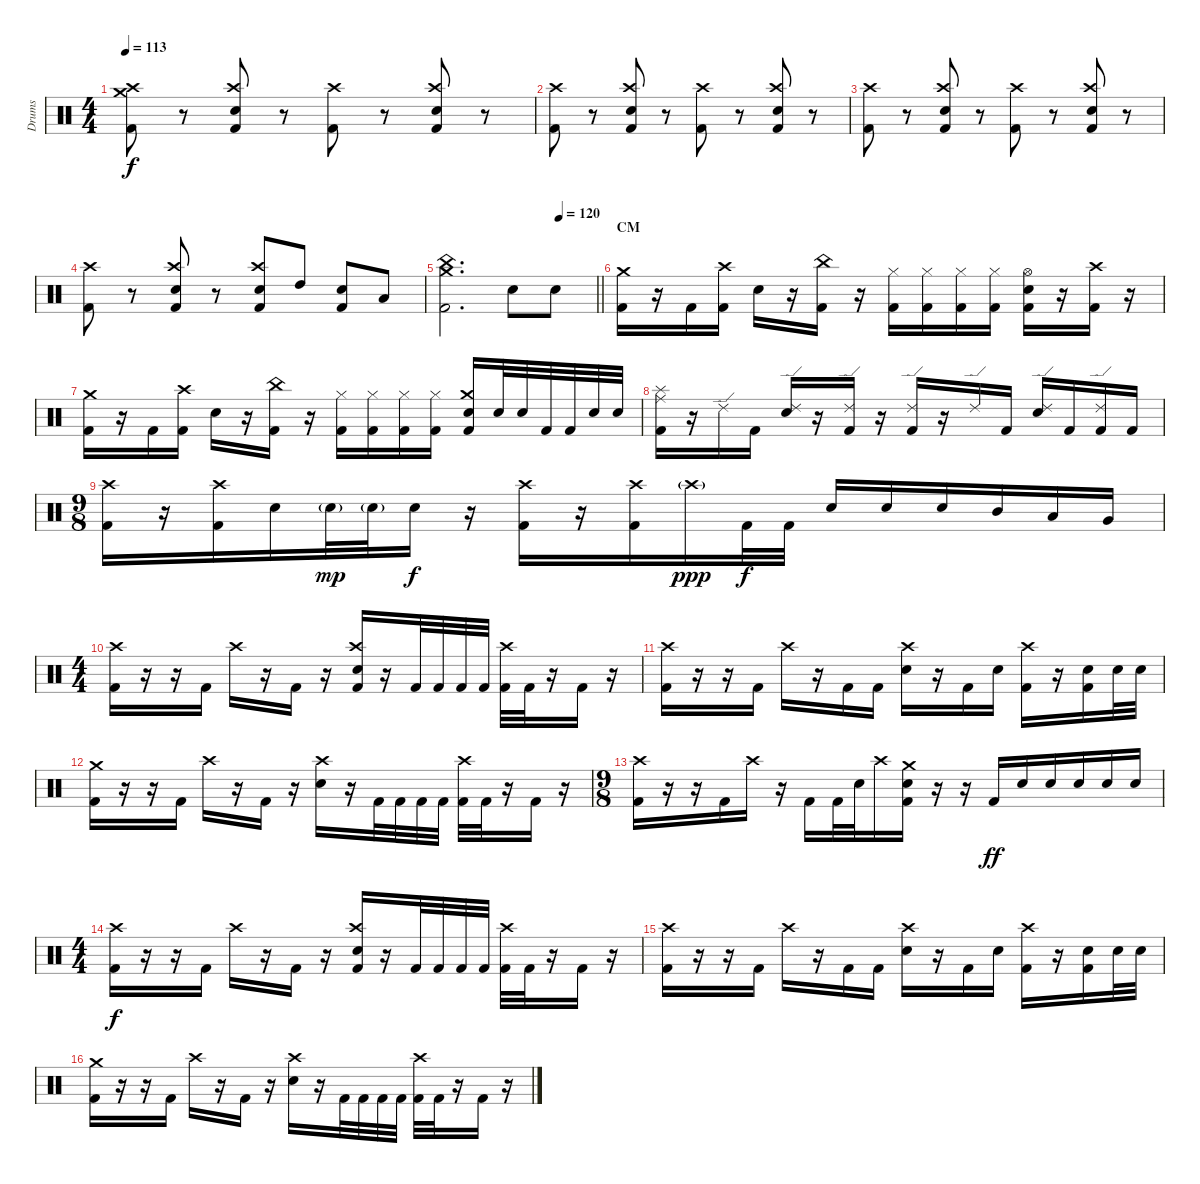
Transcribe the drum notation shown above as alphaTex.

\track ("Drums" "Drums") {instrument percussion}
\staff {score}
\articulation defaults
\ts (4 4)
\tempo 113
\clef neutral
\ks c
("Kick (hit) 2" "Crash high (hit)" "Crash medium (hit)").8{dy f} r.8 ("Kick (hit) 2" "Electric Snare (hit)" "Crash high (hit)").8 r.8 ("Kick (hit) 2" "Crash high (hit)").8 r.8 ("Kick (hit) 2" "Electric Snare (hit)" "Crash high (hit)").8 r.8 |
("Kick (hit) 2" "Crash high (hit)").8 r.8 ("Kick (hit) 2" "Electric Snare (hit)" "Crash high (hit)").8 r.8 ("Kick (hit) 2" "Crash high (hit)").8 r.8 ("Kick (hit) 2" "Electric Snare (hit)" "Crash high (hit)").8 r.8 |
("Kick (hit) 2" "Crash high (hit)").8 r.8 ("Kick (hit) 2" "Electric Snare (hit)" "Crash high (hit)").8 r.8 ("Kick (hit) 2" "Crash high (hit)").8 r.8 ("Kick (hit) 2" "Electric Snare (hit)" "Crash high (hit)").8 r.8 |
("Kick (hit) 2" "Crash high (hit)").8 r.8 ("Kick (hit) 2" "Electric Snare (hit)" "Crash high (hit)").8 r.8 ("Kick (hit) 2" "Electric Snare (hit)" "Crash high (hit)").8 "High Tom (hit)".8 ("Kick (hit) 2" "Electric Snare (hit)").8 "Low Floor Tom (hit)".8 |
\tempo (120 0.75)
\barLineRight lightlight
("Kick (hit) 2" "China (hit)" "Crash medium (hit)").2{d} "Electric Snare (hit)".8 "Electric Snare (hit)".8 |
\section ("" "CM")
("Crash medium (hit)" "Kick (hit) 2").16 r.16 "Kick (hit) 2".16 ("Crash high (hit)" "Kick (hit) 2").16 "Electric Snare (hit)".16 r.16 ("China (hit)" "Kick (hit) 2").16 r.16 ("Hi-Hat (closed)" "Kick (hit) 2").16 ("Hi-Hat (closed)" "Kick (hit) 2").16 ("Hi-Hat (closed)" "Kick (hit) 2").16 ("Hi-Hat (closed)" "Kick (hit) 2").16 ("Hi-Hat (open)" "Electric Snare (hit)" "Kick (hit) 2").16 r.16 ("Crash high (hit)" "Kick (hit) 2").16 r.16 |
("Crash medium (hit)" "Kick (hit) 2").16 r.16 "Kick (hit) 2".16 ("Crash high (hit)" "Kick (hit) 2").16 "Electric Snare (hit)".16 r.16 ("China (hit)" "Kick (hit) 2").16 r.16 ("Hi-Hat (closed)" "Kick (hit) 2").16 ("Hi-Hat (closed)" "Kick (hit) 2").16 ("Hi-Hat (closed)" "Kick (hit) 2").16 ("Hi-Hat (closed)" "Kick (hit) 2").16 ("Crash medium (hit)" "Electric Snare (hit)" "Kick (hit) 2").16 "Electric Snare (hit)".32 "Electric Snare (hit)".32 "Kick (hit) 2".32 "Kick (hit) 2".32 "Electric Snare (hit)".32 "Electric Snare (hit)".32 |
("Splash (hit)" "Ride (middle)" "Kick (hit) 2").16 r.16 "Ride (edge) 2".16 "Kick (hit) 2".16 ("Ride (edge) 2" "Electric Snare (hit)").16 r.16 ("Ride (edge) 2" "Kick (hit) 2").16 r.16 ("Ride (edge) 2" "Kick (hit) 2").16 r.16 "Ride (edge) 2".16 "Kick (hit) 2".16 ("Ride (edge) 2" "Electric Snare (hit)").16 "Kick (hit) 2".16 ("Ride (edge) 2" "Kick (hit) 2").16 "Kick (hit) 2".16 |
\ts (9 8)
("Crash high (hit)" "Kick (hit) 2").16 r.16 ("Crash high (hit)" "Kick (hit) 2").16 "Electric Snare (hit)".16 "Electric Snare (hit)"{g}.32{dy mp} "Electric Snare (hit)"{g}.32 "Electric Snare (hit)".16{dy f} r.16 ("Crash high (hit)" "Kick (hit) 2").16 r.16 ("Crash high (hit)" "Kick (hit) 2").16 "Crash high (hit)"{g}.16{dy ppp} "Kick (hit) 2".32{dy f} "Kick (hit) 2".32 "Electric Snare (hit)".16 "Electric Snare (hit)".16 "Electric Snare (hit)".16 "Mid Tom (hit)".16 "Low Tom (hit)".16 "Very Low Tom (hit)".16 |
\ts (4 4)
("Crash high (hit)" "Kick (hit) 2").16 r.16 r.16 "Kick (hit) 2".16 "Crash high (hit)".16 r.16 "Kick (hit) 2".16 r.16 ("Crash high (hit)" "Electric Snare (hit)" "Kick (hit) 2").16 r.16 "Kick (hit) 2".32 "Kick (hit) 2".32 "Kick (hit) 2".32 "Kick (hit) 2".32 ("Crash high (hit)" "Kick (hit) 2").32 "Kick (hit) 2".32 r.16 "Kick (hit) 2".16 r.16 |
("Crash high (hit)" "Kick (hit) 2").16 r.16 r.16 "Kick (hit) 2".16 "Crash high (hit)".16 r.16 "Kick (hit) 2".16 "Kick (hit) 2".16 ("Crash high (hit)" "Electric Snare (hit)").16 r.16 "Kick (hit) 2".16 "Electric Snare (hit)".16 ("Crash high (hit)" "Kick (hit) 2").16 r.16 ("Electric Snare (hit)" "Kick (hit) 2").16 "Electric Snare (hit)".32 "Electric Snare (hit)".32 |
("Crash medium (hit)" "Kick (hit) 2").16 r.16 r.16 "Kick (hit) 2".16 "Crash high (hit)".16 r.16 "Kick (hit) 2".16 r.16 ("Crash high (hit)" "Electric Snare (hit)").16 r.16 "Kick (hit) 2".32 "Kick (hit) 2".32 "Kick (hit) 2".32 "Kick (hit) 2".32 ("Crash high (hit)" "Kick (hit) 2").32 "Kick (hit) 2".32 r.16 "Kick (hit) 2".16 r.16 |
\ts (9 8)
("Crash high (hit)" "Kick (hit) 2").16 r.16 r.16 "Kick (hit) 2".16 "Crash high (hit)".16 r.16 "Kick (hit) 2".16{beam Down} "Kick (hit) 2".32{beam Down} "Electric Snare (hit)".32{beam Down} "Crash high (hit)".16{beam Down} ("Crash medium (hit)" "Electric Snare (hit)" "Kick (hit) 2").16{beam Down} r.16 r.16 "Kick (hit) 2".16{dy ff} "Electric Snare (hit)".16 "Electric Snare (hit)".16 "Electric Snare (hit)".16 "Electric Snare (hit)".16 "Electric Snare (hit)".16 |
\ts (4 4)
("Crash high (hit)" "Kick (hit) 2").16{dy f} r.16 r.16 "Kick (hit) 2".16 "Crash high (hit)".16 r.16 "Kick (hit) 2".16 r.16 ("Crash high (hit)" "Electric Snare (hit)" "Kick (hit) 2").16 r.16 "Kick (hit) 2".32 "Kick (hit) 2".32 "Kick (hit) 2".32 "Kick (hit) 2".32 ("Crash high (hit)" "Kick (hit) 2").32 "Kick (hit) 2".32 r.16 "Kick (hit) 2".16 r.16 |
("Crash high (hit)" "Kick (hit) 2").16 r.16 r.16 "Kick (hit) 2".16 "Crash high (hit)".16 r.16 "Kick (hit) 2".16 "Kick (hit) 2".16 ("Crash high (hit)" "Electric Snare (hit)").16 r.16 "Kick (hit) 2".16 "Electric Snare (hit)".16 ("Crash high (hit)" "Kick (hit) 2").16 r.16 ("Electric Snare (hit)" "Kick (hit) 2").16 "Electric Snare (hit)".32 "Electric Snare (hit)".32 |
("Crash medium (hit)" "Kick (hit) 2").16 r.16 r.16 "Kick (hit) 2".16 "Crash high (hit)".16 r.16 "Kick (hit) 2".16 r.16 ("Crash high (hit)" "Electric Snare (hit)").16 r.16 "Kick (hit) 2".32 "Kick (hit) 2".32 "Kick (hit) 2".32 "Kick (hit) 2".32 ("Crash high (hit)" "Kick (hit) 2").32 "Kick (hit) 2".32 r.16 "Kick (hit) 2".16 r.16
